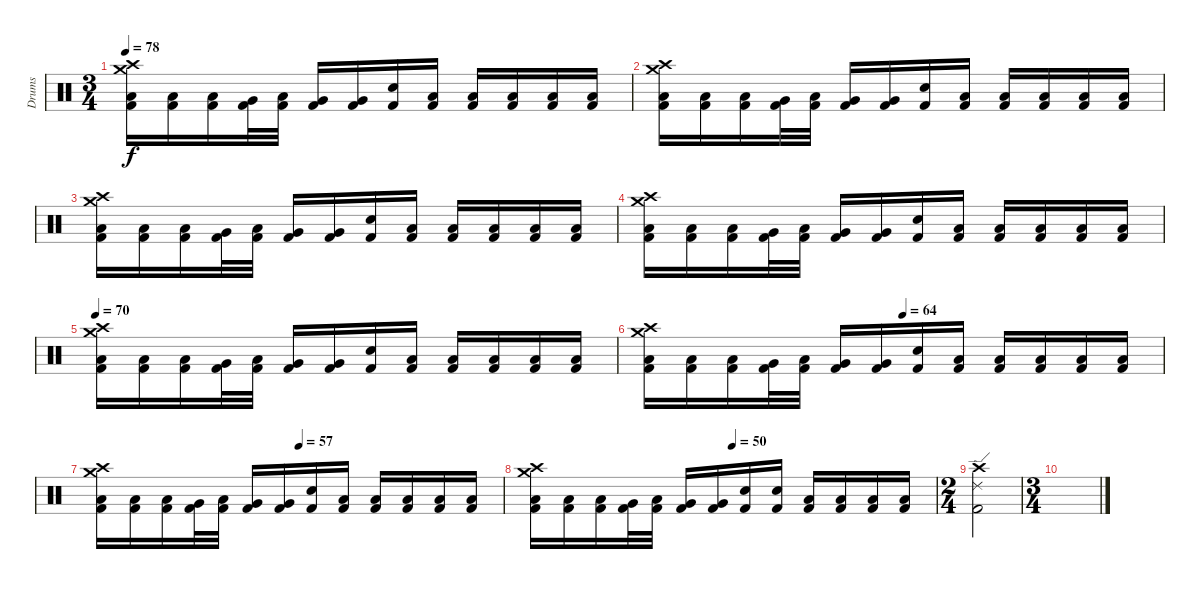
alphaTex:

\track ("Drums" "Drums") {instrument percussion}
\staff {score}
\articulation defaults
\ts (3 4)
\tempo 78
\clef neutral
\ks c
("Crash medium (hit)" "Crash high (hit)" "Low Floor Tom (hit)" "Kick (hit) 2").16{dy f} ("Low Floor Tom (hit)" "Kick (hit) 2").16 ("Low Floor Tom (hit)" "Kick (hit) 2").16 ("Very Low Tom (hit)" "Kick (hit) 2").32 ("Low Floor Tom (hit)" "Kick (hit) 2").32 ("Very Low Tom (hit)" "Kick (hit) 2").16 ("Very Low Tom (hit)" "Kick (hit) 2").16 ("Snare (hit) 2" "Kick (hit) 2").16 ("Low Floor Tom (hit)" "Kick (hit) 2").16 ("Low Floor Tom (hit)" "Kick (hit) 2").16 ("Low Floor Tom (hit)" "Kick (hit) 2").16 ("Low Floor Tom (hit)" "Kick (hit) 2").16 ("Low Floor Tom (hit)" "Kick (hit) 2").16 |
("Crash medium (hit)" "Crash high (hit)" "Low Floor Tom (hit)" "Kick (hit) 2").16 ("Low Floor Tom (hit)" "Kick (hit) 2").16 ("Low Floor Tom (hit)" "Kick (hit) 2").16 ("Very Low Tom (hit)" "Kick (hit) 2").32 ("Low Floor Tom (hit)" "Kick (hit) 2").32 ("Very Low Tom (hit)" "Kick (hit) 2").16 ("Very Low Tom (hit)" "Kick (hit) 2").16 ("Snare (hit) 2" "Kick (hit) 2").16 ("Low Floor Tom (hit)" "Kick (hit) 2").16 ("Low Floor Tom (hit)" "Kick (hit) 2").16 ("Low Floor Tom (hit)" "Kick (hit) 2").16 ("Low Floor Tom (hit)" "Kick (hit) 2").16 ("Low Floor Tom (hit)" "Kick (hit) 2").16 |
("Crash medium (hit)" "Crash high (hit)" "Low Floor Tom (hit)" "Kick (hit) 2").16 ("Low Floor Tom (hit)" "Kick (hit) 2").16 ("Low Floor Tom (hit)" "Kick (hit) 2").16 ("Very Low Tom (hit)" "Kick (hit) 2").32 ("Low Floor Tom (hit)" "Kick (hit) 2").32 ("Very Low Tom (hit)" "Kick (hit) 2").16 ("Very Low Tom (hit)" "Kick (hit) 2").16 ("Snare (hit) 2" "Kick (hit) 2").16 ("Low Floor Tom (hit)" "Kick (hit) 2").16 ("Low Floor Tom (hit)" "Kick (hit) 2").16 ("Low Floor Tom (hit)" "Kick (hit) 2").16 ("Low Floor Tom (hit)" "Kick (hit) 2").16 ("Low Floor Tom (hit)" "Kick (hit) 2").16 |
("Crash medium (hit)" "Crash high (hit)" "Low Floor Tom (hit)" "Kick (hit) 2").16 ("Low Floor Tom (hit)" "Kick (hit) 2").16 ("Low Floor Tom (hit)" "Kick (hit) 2").16 ("Very Low Tom (hit)" "Kick (hit) 2").32 ("Low Floor Tom (hit)" "Kick (hit) 2").32 ("Very Low Tom (hit)" "Kick (hit) 2").16 ("Very Low Tom (hit)" "Kick (hit) 2").16 ("Snare (hit) 2" "Kick (hit) 2").16 ("Low Floor Tom (hit)" "Kick (hit) 2").16 ("Low Floor Tom (hit)" "Kick (hit) 2").16 ("Low Floor Tom (hit)" "Kick (hit) 2").16 ("Low Floor Tom (hit)" "Kick (hit) 2").16 ("Low Floor Tom (hit)" "Kick (hit) 2").16 |
\tempo 70
("Crash medium (hit)" "Crash high (hit)" "Low Floor Tom (hit)" "Kick (hit) 2").16 ("Low Floor Tom (hit)" "Kick (hit) 2").16 ("Low Floor Tom (hit)" "Kick (hit) 2").16 ("Very Low Tom (hit)" "Kick (hit) 2").32 ("Low Floor Tom (hit)" "Kick (hit) 2").32 ("Very Low Tom (hit)" "Kick (hit) 2").16 ("Very Low Tom (hit)" "Kick (hit) 2").16 ("Snare (hit) 2" "Kick (hit) 2").16 ("Low Floor Tom (hit)" "Kick (hit) 2").16 ("Low Floor Tom (hit)" "Kick (hit) 2").16 ("Low Floor Tom (hit)" "Kick (hit) 2").16 ("Low Floor Tom (hit)" "Kick (hit) 2").16 ("Low Floor Tom (hit)" "Kick (hit) 2").16 |
\tempo (64 0.5)
("Crash medium (hit)" "Crash high (hit)" "Low Floor Tom (hit)" "Kick (hit) 2").16 ("Low Floor Tom (hit)" "Kick (hit) 2").16 ("Low Floor Tom (hit)" "Kick (hit) 2").16 ("Very Low Tom (hit)" "Kick (hit) 2").32 ("Low Floor Tom (hit)" "Kick (hit) 2").32 ("Very Low Tom (hit)" "Kick (hit) 2").16 ("Very Low Tom (hit)" "Kick (hit) 2").16 ("Snare (hit) 2" "Kick (hit) 2").16 ("Low Floor Tom (hit)" "Kick (hit) 2").16 ("Low Floor Tom (hit)" "Kick (hit) 2").16 ("Low Floor Tom (hit)" "Kick (hit) 2").16 ("Low Floor Tom (hit)" "Kick (hit) 2").16 ("Low Floor Tom (hit)" "Kick (hit) 2").16 |
\tempo (57 0.5)
("Crash medium (hit)" "Crash high (hit)" "Low Floor Tom (hit)" "Kick (hit) 2").16 ("Low Floor Tom (hit)" "Kick (hit) 2").16 ("Low Floor Tom (hit)" "Kick (hit) 2").16 ("Very Low Tom (hit)" "Kick (hit) 2").32 ("Low Floor Tom (hit)" "Kick (hit) 2").32 ("Very Low Tom (hit)" "Kick (hit) 2").16 ("Very Low Tom (hit)" "Kick (hit) 2").16 ("Snare (hit) 2" "Kick (hit) 2").16 ("Low Floor Tom (hit)" "Kick (hit) 2").16 ("Low Floor Tom (hit)" "Kick (hit) 2").16 ("Low Floor Tom (hit)" "Kick (hit) 2").16 ("Low Floor Tom (hit)" "Kick (hit) 2").16 ("Low Floor Tom (hit)" "Kick (hit) 2").16 |
\tempo (50 0.5)
("Crash medium (hit)" "Crash high (hit)" "Low Floor Tom (hit)" "Kick (hit) 2").16 ("Low Floor Tom (hit)" "Kick (hit) 2").16 ("Low Floor Tom (hit)" "Kick (hit) 2").16 ("Very Low Tom (hit)" "Kick (hit) 2").32 ("Low Floor Tom (hit)" "Kick (hit) 2").32 ("Very Low Tom (hit)" "Kick (hit) 2").16 ("Very Low Tom (hit)" "Kick (hit) 2").16 ("Snare (hit) 2" "Kick (hit) 2").16 ("Snare (hit) 2" "Kick (hit) 2").16 ("Low Floor Tom (hit)" "Kick (hit) 2").16 ("Low Floor Tom (hit)" "Kick (hit) 2").16 ("Low Floor Tom (hit)" "Kick (hit) 2").16 ("Low Floor Tom (hit)" "Kick (hit) 2").16 |
\ts (2 4)
("Crash high (hit)" "Ride (edge) 2" "Kick (hit) 2").2 |
\ts (3 4)
